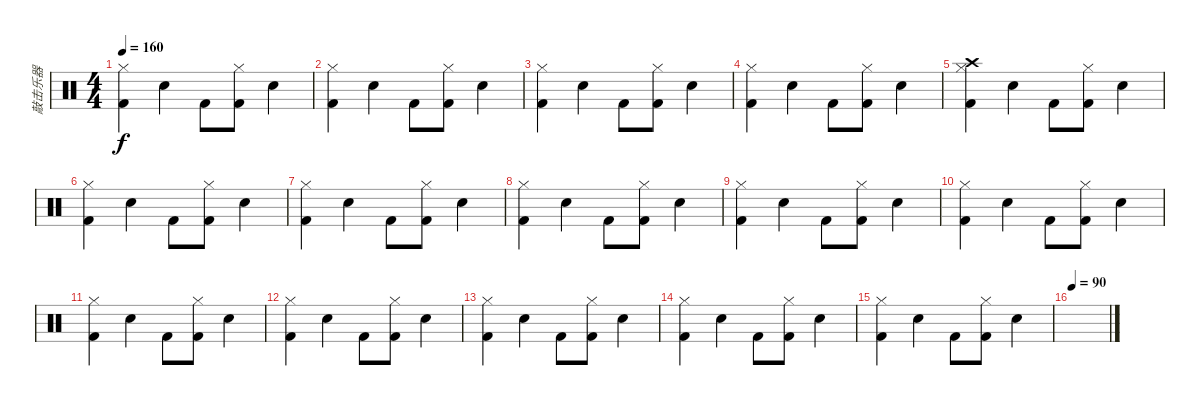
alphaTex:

\track ("敲击乐器" "敲击乐器") {instrument percussion}
\staff {score}
\articulation defaults
\ts (4 4)
\tempo 160
\clef neutral
\ks c
("Hi-Hat (closed)" "Kick (hit) 2").4{dy f} "Electric Snare (hit)".4 "Kick (hit) 2".8 ("Hi-Hat (closed)" "Kick (hit) 2").8 "Electric Snare (hit)".4 |
("Hi-Hat (closed)" "Kick (hit) 2").4 "Electric Snare (hit)".4 "Kick (hit) 2".8 ("Hi-Hat (closed)" "Kick (hit) 2").8 "Electric Snare (hit)".4 |
("Hi-Hat (closed)" "Kick (hit) 2").4 "Electric Snare (hit)".4 "Kick (hit) 2".8 ("Hi-Hat (closed)" "Kick (hit) 2").8 "Electric Snare (hit)".4 |
("Hi-Hat (closed)" "Kick (hit) 2").4 "Electric Snare (hit)".4 "Kick (hit) 2".8 ("Hi-Hat (closed)" "Kick (hit) 2").8 "Electric Snare (hit)".4 |
("Hi-Hat (closed)" "Crash high (hit)" "Kick (hit) 2").4 "Electric Snare (hit)".4 "Kick (hit) 2".8 ("Hi-Hat (closed)" "Kick (hit) 2").8 "Electric Snare (hit)".4 |
("Hi-Hat (closed)" "Kick (hit) 2").4 "Electric Snare (hit)".4 "Kick (hit) 2".8 ("Hi-Hat (closed)" "Kick (hit) 2").8 "Electric Snare (hit)".4 |
("Hi-Hat (closed)" "Kick (hit) 2").4 "Electric Snare (hit)".4 "Kick (hit) 2".8 ("Hi-Hat (closed)" "Kick (hit) 2").8 "Electric Snare (hit)".4 |
("Hi-Hat (closed)" "Kick (hit) 2").4 "Electric Snare (hit)".4 "Kick (hit) 2".8 ("Hi-Hat (closed)" "Kick (hit) 2").8 "Electric Snare (hit)".4 |
("Hi-Hat (closed)" "Kick (hit) 2").4 "Electric Snare (hit)".4 "Kick (hit) 2".8 ("Hi-Hat (closed)" "Kick (hit) 2").8 "Electric Snare (hit)".4 |
("Hi-Hat (closed)" "Kick (hit) 2").4 "Electric Snare (hit)".4 "Kick (hit) 2".8 ("Hi-Hat (closed)" "Kick (hit) 2").8 "Electric Snare (hit)".4 |
("Hi-Hat (closed)" "Kick (hit) 2").4 "Electric Snare (hit)".4 "Kick (hit) 2".8 ("Hi-Hat (closed)" "Kick (hit) 2").8 "Electric Snare (hit)".4 |
("Hi-Hat (closed)" "Kick (hit) 2").4 "Electric Snare (hit)".4 "Kick (hit) 2".8 ("Hi-Hat (closed)" "Kick (hit) 2").8 "Electric Snare (hit)".4 |
("Hi-Hat (closed)" "Kick (hit) 2").4 "Electric Snare (hit)".4 "Kick (hit) 2".8 ("Hi-Hat (closed)" "Kick (hit) 2").8 "Electric Snare (hit)".4 |
("Hi-Hat (closed)" "Kick (hit) 2").4 "Electric Snare (hit)".4 "Kick (hit) 2".8 ("Hi-Hat (closed)" "Kick (hit) 2").8 "Electric Snare (hit)".4 |
("Hi-Hat (closed)" "Kick (hit) 2").4 "Electric Snare (hit)".4 "Kick (hit) 2".8 ("Hi-Hat (closed)" "Kick (hit) 2").8 "Electric Snare (hit)".4 |
\tempo 90
